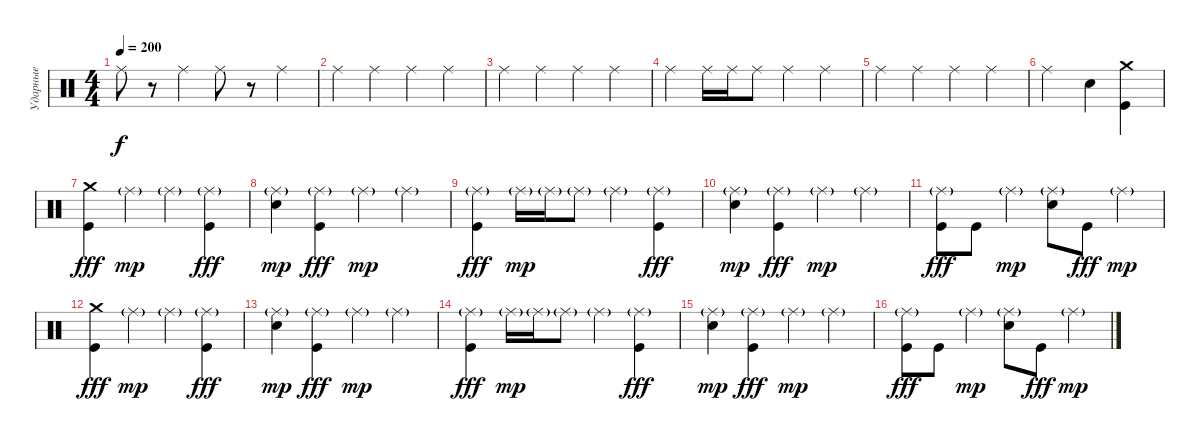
\track ("Ударные" "Ударные") {instrument percussion}
\staff {score}
\articulation defaults
\ts (4 4)
\tempo 200
\clef neutral
\ks c "Ride (middle)".8{dy f}
r.8 "Ride (middle)".4 "Ride (middle)".8 r.8 "Ride (middle)".4 |
"Ride (middle)".4{volume 11} "Ride (middle)".4 "Ride (middle)".4 "Ride (middle)".4 |
"Ride (middle)".4 "Ride (middle)".4 "Ride (middle)".4 "Ride (middle)".4 |
"Ride (middle)".4 "Ride (middle)".16 "Ride (middle)".16 "Ride (middle)".8 "Ride (middle)".4 "Ride (middle)".4 |
"Ride (middle)".4 "Ride (middle)".4 "Ride (middle)".4 "Ride (middle)".4 |
"Ride (middle)".2 "Electric Snare (hit)".4 ("Crash medium (hit)" "Kick (hit)").4 |
("Crash medium (hit)" "Kick (hit)").4{dy fff volume 13} "Ride (middle)"{g}.4{dy mp} "Ride (middle)"{g}.4 ("Ride (middle)"{g} "Kick (hit)").4{dy fff} |
("Ride (middle)"{g} "Electric Snare (hit)").4{dy mp} ("Ride (middle)"{g} "Kick (hit)").4{dy fff} "Ride (middle)"{g}.4{dy mp} "Ride (middle)"{g}.4 |
("Ride (middle)"{g} "Kick (hit)").4{dy fff} "Ride (middle)"{g}.16{dy mp} "Ride (middle)"{g}.16 "Ride (middle)"{g}.8 "Ride (middle)"{g}.4 ("Ride (middle)"{g} "Kick (hit)").4{dy fff} |
("Ride (middle)"{g} "Electric Snare (hit)").4{dy mp} ("Ride (middle)"{g} "Kick (hit)").4{dy fff} "Ride (middle)"{g}.4{dy mp} "Ride (middle)"{g}.4 |
("Ride (middle)"{g} "Kick (hit)").8{dy fff} "Kick (hit)".8 "Ride (middle)"{g}.4{dy mp} ("Ride (middle)"{g} "Electric Snare (hit)").8 "Kick (hit)".8{dy fff} "Ride (middle)"{g}.4{dy mp} |
("Crash medium (hit)" "Kick (hit)").4{dy fff} "Ride (middle)"{g}.4{dy mp} "Ride (middle)"{g}.4 ("Ride (middle)"{g} "Kick (hit)").4{dy fff} |
("Ride (middle)"{g} "Electric Snare (hit)").4{dy mp} ("Ride (middle)"{g} "Kick (hit)").4{dy fff} "Ride (middle)"{g}.4{dy mp} "Ride (middle)"{g}.4 |
("Ride (middle)"{g} "Kick (hit)").4{dy fff} "Ride (middle)"{g}.16{dy mp} "Ride (middle)"{g}.16 "Ride (middle)"{g}.8 "Ride (middle)"{g}.4 ("Ride (middle)"{g} "Kick (hit)").4{dy fff} |
("Ride (middle)"{g} "Electric Snare (hit)").4{dy mp} ("Ride (middle)"{g} "Kick (hit)").4{dy fff} "Ride (middle)"{g}.4{dy mp} "Ride (middle)"{g}.4 |
("Ride (middle)"{g} "Kick (hit)").8{dy fff} "Kick (hit)".8 "Ride (middle)"{g}.4{dy mp} ("Ride (middle)"{g} "Electric Snare (hit)").8 "Kick (hit)".8{dy fff} "Ride (middle)"{g}.4{dy mp}
